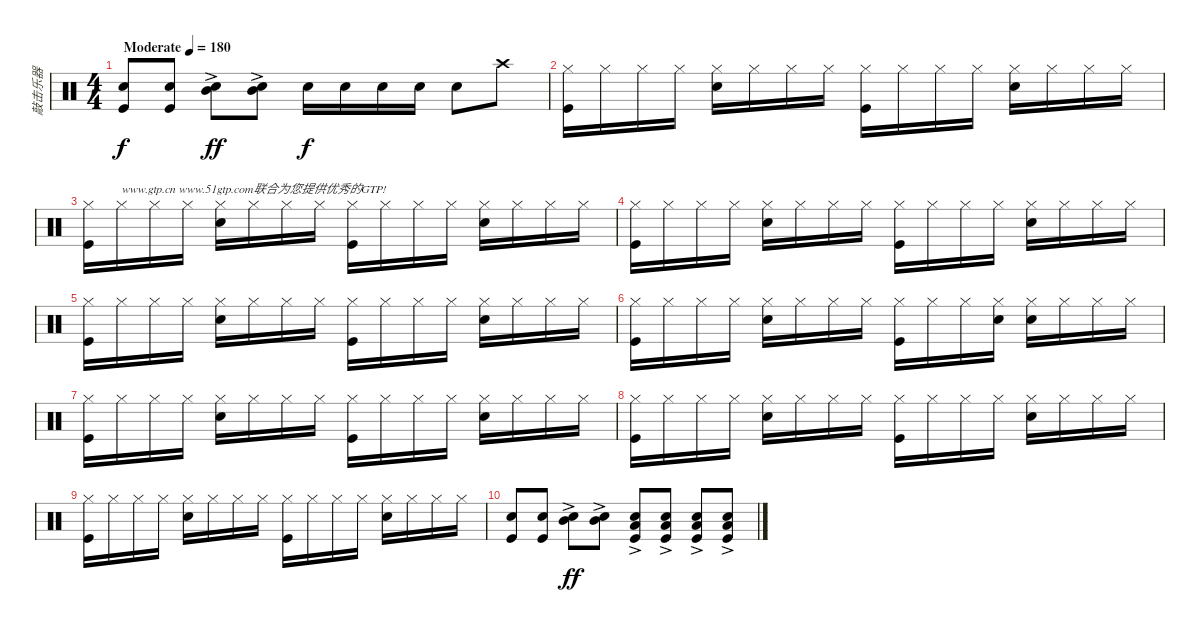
\track ("敲击乐器" "敲击乐器") {instrument percussion}
\staff {score}
\articulation defaults
\ts (4 4)
\tempo (180 "Moderate")
\clef neutral
\ks c
("Kick (hit)" "Snare (hit) 2").8{dy f} ("Kick (hit)" "Snare (hit) 2").8 ("Snare (hit) 2" "Mid Tom (hit)"{ac}).8{dy ff} ("Snare (hit) 2" "Mid Tom (hit)"{ac}).8 "Snare (hit) 2".16{dy f} "Snare (hit) 2".16 "Snare (hit) 2".16 "Snare (hit) 2".16 "Snare (hit) 2".8 "Crash high (hit)".8 |
("Hi-Hat (closed)" "Kick (hit)").16 "Hi-Hat (closed)".16 "Hi-Hat (closed)".16 "Hi-Hat (closed)".16 ("Snare (hit) 2" "Hi-Hat (closed)").16 "Hi-Hat (closed)".16 "Hi-Hat (closed)".16 "Hi-Hat (closed)".16 ("Kick (hit)" "Hi-Hat (closed)").16 "Hi-Hat (closed)".16 "Hi-Hat (closed)".16 "Hi-Hat (closed)".16 ("Snare (hit) 2" "Hi-Hat (closed)").16 "Hi-Hat (closed)".16 "Hi-Hat (closed)".16 "Hi-Hat (closed)".16 |
("Kick (hit)" "Hi-Hat (closed)").16 "Hi-Hat (closed)".16{txt "www.gtp.cn www.51gtp.com联合为您提供优秀的GTP!"} "Hi-Hat (closed)".16 "Hi-Hat (closed)".16 ("Snare (hit) 2" "Hi-Hat (closed)").16 "Hi-Hat (closed)".16 "Hi-Hat (closed)".16 "Hi-Hat (closed)".16 ("Kick (hit)" "Hi-Hat (closed)").16 "Hi-Hat (closed)".16 "Hi-Hat (closed)".16 "Hi-Hat (closed)".16 ("Snare (hit) 2" "Hi-Hat (closed)").16 "Hi-Hat (closed)".16 "Hi-Hat (closed)".16 "Hi-Hat (closed)".16 |
("Kick (hit)" "Hi-Hat (closed)").16 "Hi-Hat (closed)".16 "Hi-Hat (closed)".16 "Hi-Hat (closed)".16 ("Snare (hit) 2" "Hi-Hat (closed)").16 "Hi-Hat (closed)".16 "Hi-Hat (closed)".16 "Hi-Hat (closed)".16 ("Kick (hit)" "Hi-Hat (closed)").16 "Hi-Hat (closed)".16 "Hi-Hat (closed)".16 "Hi-Hat (closed)".16 ("Snare (hit) 2" "Hi-Hat (closed)").16 "Hi-Hat (closed)".16 "Hi-Hat (closed)".16 "Hi-Hat (closed)".16 |
("Kick (hit)" "Hi-Hat (closed)").16 "Hi-Hat (closed)".16 "Hi-Hat (closed)".16 "Hi-Hat (closed)".16 ("Snare (hit) 2" "Hi-Hat (closed)").16 "Hi-Hat (closed)".16 "Hi-Hat (closed)".16 "Hi-Hat (closed)".16 ("Kick (hit)" "Hi-Hat (closed)").16 "Hi-Hat (closed)".16 "Hi-Hat (closed)".16 "Hi-Hat (closed)".16 ("Snare (hit) 2" "Hi-Hat (closed)").16 "Hi-Hat (closed)".16 "Hi-Hat (closed)".16 "Hi-Hat (closed)".16 |
("Kick (hit)" "Hi-Hat (closed)").16 "Hi-Hat (closed)".16 "Hi-Hat (closed)".16 "Hi-Hat (closed)".16 ("Snare (hit) 2" "Hi-Hat (closed)").16 "Hi-Hat (closed)".16 "Hi-Hat (closed)".16 "Hi-Hat (closed)".16 ("Kick (hit)" "Hi-Hat (closed)").16 "Hi-Hat (closed)".16 "Hi-Hat (closed)".16 ("Snare (hit) 2" "Hi-Hat (closed)").16 ("Snare (hit) 2" "Hi-Hat (closed)").16 "Hi-Hat (closed)".16 "Hi-Hat (closed)".16 "Hi-Hat (closed)".16 |
("Kick (hit)" "Hi-Hat (closed)").16 "Hi-Hat (closed)".16 "Hi-Hat (closed)".16 "Hi-Hat (closed)".16 ("Snare (hit) 2" "Hi-Hat (closed)").16 "Hi-Hat (closed)".16 "Hi-Hat (closed)".16 "Hi-Hat (closed)".16 ("Kick (hit)" "Hi-Hat (closed)").16 "Hi-Hat (closed)".16 "Hi-Hat (closed)".16 "Hi-Hat (closed)".16 ("Snare (hit) 2" "Hi-Hat (closed)").16 "Hi-Hat (closed)".16 "Hi-Hat (closed)".16 "Hi-Hat (closed)".16 |
("Kick (hit)" "Hi-Hat (closed)").16 "Hi-Hat (closed)".16 "Hi-Hat (closed)".16 "Hi-Hat (closed)".16 ("Snare (hit) 2" "Hi-Hat (closed)").16 "Hi-Hat (closed)".16 "Hi-Hat (closed)".16 "Hi-Hat (closed)".16 ("Kick (hit)" "Hi-Hat (closed)").16 "Hi-Hat (closed)".16 "Hi-Hat (closed)".16 "Hi-Hat (closed)".16 ("Snare (hit) 2" "Hi-Hat (closed)").16 "Hi-Hat (closed)".16 "Hi-Hat (closed)".16 "Hi-Hat (closed)".16 |
("Kick (hit)" "Hi-Hat (closed)").16 "Hi-Hat (closed)".16 "Hi-Hat (closed)".16 "Hi-Hat (closed)".16 ("Snare (hit) 2" "Hi-Hat (closed)").16 "Hi-Hat (closed)".16 "Hi-Hat (closed)".16 "Hi-Hat (closed)".16 ("Kick (hit)" "Hi-Hat (closed)").16 "Hi-Hat (closed)".16 "Hi-Hat (closed)".16 "Hi-Hat (closed)".16 ("Snare (hit) 2" "Hi-Hat (closed)").16 "Hi-Hat (closed)".16 "Hi-Hat (closed)".16 "Hi-Hat (closed)".16 |
("Kick (hit)" "Snare (hit) 2").8 ("Kick (hit)" "Snare (hit) 2").8 ("Snare (hit) 2" "Mid Tom (hit)"{ac}).8{dy ff} ("Snare (hit) 2" "Mid Tom (hit)"{ac}).8 ("Snare (hit) 2"{ac} "Kick (hit)"{ac} "Low Floor Tom (hit)"{ac}).8 ("Snare (hit) 2"{ac} "Kick (hit)"{ac} "Low Floor Tom (hit)"{ac}).8 ("Snare (hit) 2"{ac} "Kick (hit)"{ac} "Low Floor Tom (hit)"{ac}).8 ("Snare (hit) 2"{ac} "Kick (hit)"{ac} "Low Floor Tom (hit)"{ac}).8
